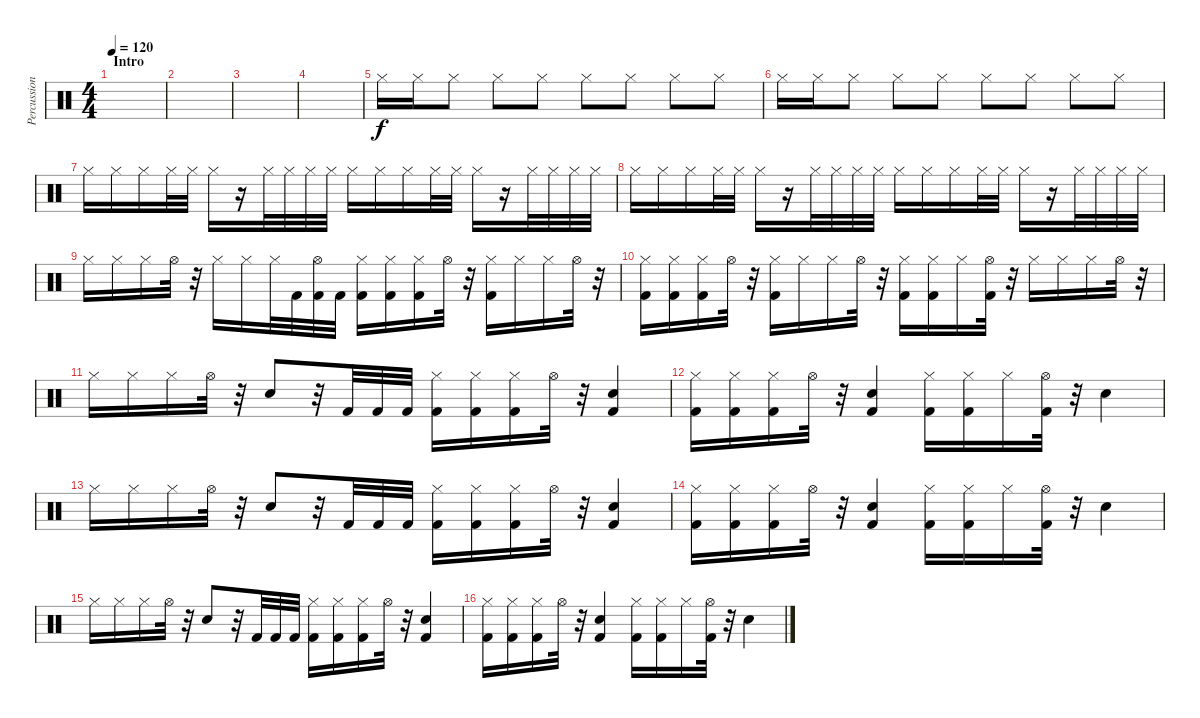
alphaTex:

\track ("Percussion" "Percussion") {instrument percussion}
\staff {score}
\articulation defaults
\ts (4 4)
\section ("" "Intro")
\tempo 120
\clef neutral
\ks c
|
|
|
|
"Hi-Hat (closed)".16 "Hi-Hat (closed)".16 "Hi-Hat (closed)".8 "Hi-Hat (closed)".8 "Hi-Hat (closed)".8 "Hi-Hat (closed)".8 "Hi-Hat (closed)".8 "Hi-Hat (closed)".8 "Hi-Hat (closed)".8 |
"Hi-Hat (closed)".16 "Hi-Hat (closed)".16 "Hi-Hat (closed)".8 "Hi-Hat (closed)".8 "Hi-Hat (closed)".8 "Hi-Hat (closed)".8 "Hi-Hat (closed)".8 "Hi-Hat (closed)".8 "Hi-Hat (closed)".8 |
"Hi-Hat (closed)".16 "Hi-Hat (closed)".16 "Hi-Hat (closed)".16 "Hi-Hat (closed)".32 "Hi-Hat (closed)".32 "Hi-Hat (closed)".16 r.16 "Hi-Hat (closed)".32 "Hi-Hat (closed)".32 "Hi-Hat (closed)".32 "Hi-Hat (closed)".32 "Hi-Hat (closed)".16 "Hi-Hat (closed)".16 "Hi-Hat (closed)".16 "Hi-Hat (closed)".32 "Hi-Hat (closed)".32 "Hi-Hat (closed)".16 r.16 "Hi-Hat (closed)".32 "Hi-Hat (closed)".32 "Hi-Hat (closed)".32 "Hi-Hat (closed)".32 |
"Hi-Hat (closed)".16 "Hi-Hat (closed)".16 "Hi-Hat (closed)".16 "Hi-Hat (closed)".32 "Hi-Hat (closed)".32 "Hi-Hat (closed)".16 r.16 "Hi-Hat (closed)".32 "Hi-Hat (closed)".32 "Hi-Hat (closed)".32 "Hi-Hat (closed)".32 "Hi-Hat (closed)".16 "Hi-Hat (closed)".16 "Hi-Hat (closed)".16 "Hi-Hat (closed)".32 "Hi-Hat (closed)".32 "Hi-Hat (closed)".16 r.16 "Hi-Hat (closed)".32 "Hi-Hat (closed)".32 "Hi-Hat (closed)".32 "Hi-Hat (closed)".32 |
"Hi-Hat (closed)".16 "Hi-Hat (closed)".16 "Hi-Hat (closed)".16 "Hi-Hat (open)".32 r.32 "Hi-Hat (closed)".16 "Hi-Hat (closed)".16 "Hi-Hat (closed)".32 "Kick (hit) 2".32 ("Hi-Hat (open)" "Kick (hit) 2").32 "Kick (hit) 2".32 ("Hi-Hat (closed)" "Kick (hit) 2").16 ("Hi-Hat (closed)" "Kick (hit) 2").16 ("Hi-Hat (closed)" "Kick (hit) 2").16 "Hi-Hat (open)".32 r.32 ("Hi-Hat (closed)" "Kick (hit) 2").16 "Hi-Hat (closed)".16 "Hi-Hat (closed)".16 "Hi-Hat (open)".32 r.32 |
("Hi-Hat (closed)" "Kick (hit) 2").16 ("Hi-Hat (closed)" "Kick (hit) 2").16 ("Hi-Hat (closed)" "Kick (hit) 2").16 "Hi-Hat (open)".32 r.32 ("Hi-Hat (closed)" "Kick (hit) 2").16 "Hi-Hat (closed)".16 "Hi-Hat (closed)".16 "Hi-Hat (open)".32 r.32 ("Hi-Hat (closed)" "Kick (hit) 2").16 ("Hi-Hat (closed)" "Kick (hit) 2").16 "Hi-Hat (closed)".16 ("Hi-Hat (open)" "Kick (hit) 2").32 r.32 "Hi-Hat (closed)".16 "Hi-Hat (closed)".16 "Hi-Hat (closed)".16 "Hi-Hat (open)".32 r.32 |
"Hi-Hat (closed)".16 "Hi-Hat (closed)".16 "Hi-Hat (closed)".16 "Hi-Hat (open)".32 r.32 "Electric Snare (hit)".8 r.32 "Kick (hit) 2".32 "Kick (hit) 2".32 "Kick (hit) 2".32 ("Hi-Hat (closed)" "Kick (hit) 2").16 ("Hi-Hat (closed)" "Kick (hit) 2").16 ("Hi-Hat (closed)" "Kick (hit) 2").16 "Hi-Hat (open)".32 r.32 ("Electric Snare (hit)" "Kick (hit) 2").4 |
("Hi-Hat (closed)" "Kick (hit) 2").16 ("Hi-Hat (closed)" "Kick (hit) 2").16 ("Hi-Hat (closed)" "Kick (hit) 2").16 "Hi-Hat (open)".32 r.32 ("Electric Snare (hit)" "Kick (hit) 2").4 ("Hi-Hat (closed)" "Kick (hit) 2").16 ("Hi-Hat (closed)" "Kick (hit) 2").16 "Hi-Hat (closed)".16 ("Hi-Hat (open)" "Kick (hit) 2").32 r.32 "Electric Snare (hit)".4 |
"Hi-Hat (closed)".16 "Hi-Hat (closed)".16 "Hi-Hat (closed)".16 "Hi-Hat (open)".32 r.32 "Electric Snare (hit)".8 r.32 "Kick (hit) 2".32 "Kick (hit) 2".32 "Kick (hit) 2".32 ("Hi-Hat (closed)" "Kick (hit) 2").16 ("Hi-Hat (closed)" "Kick (hit) 2").16 ("Hi-Hat (closed)" "Kick (hit) 2").16 "Hi-Hat (open)".32 r.32 ("Electric Snare (hit)" "Kick (hit) 2").4 |
("Hi-Hat (closed)" "Kick (hit) 2").16 ("Hi-Hat (closed)" "Kick (hit) 2").16 ("Hi-Hat (closed)" "Kick (hit) 2").16 "Hi-Hat (open)".32 r.32 ("Electric Snare (hit)" "Kick (hit) 2").4 ("Hi-Hat (closed)" "Kick (hit) 2").16 ("Hi-Hat (closed)" "Kick (hit) 2").16 "Hi-Hat (closed)".16 ("Hi-Hat (open)" "Kick (hit) 2").32 r.32 "Electric Snare (hit)".4 |
"Hi-Hat (closed)".16 "Hi-Hat (closed)".16 "Hi-Hat (closed)".16 "Hi-Hat (open)".32 r.32 "Electric Snare (hit)".8 r.32 "Kick (hit) 2".32 "Kick (hit) 2".32 "Kick (hit) 2".32 ("Hi-Hat (closed)" "Kick (hit) 2").16 ("Hi-Hat (closed)" "Kick (hit) 2").16 ("Hi-Hat (closed)" "Kick (hit) 2").16 "Hi-Hat (open)".32 r.32 ("Electric Snare (hit)" "Kick (hit) 2").4 |
("Hi-Hat (closed)" "Kick (hit) 2").16 ("Hi-Hat (closed)" "Kick (hit) 2").16 ("Hi-Hat (closed)" "Kick (hit) 2").16 "Hi-Hat (open)".32 r.32 ("Electric Snare (hit)" "Kick (hit) 2").4 ("Hi-Hat (closed)" "Kick (hit) 2").16 ("Hi-Hat (closed)" "Kick (hit) 2").16 "Hi-Hat (closed)".16 ("Hi-Hat (open)" "Kick (hit) 2").32 r.32 "Electric Snare (hit)".4
